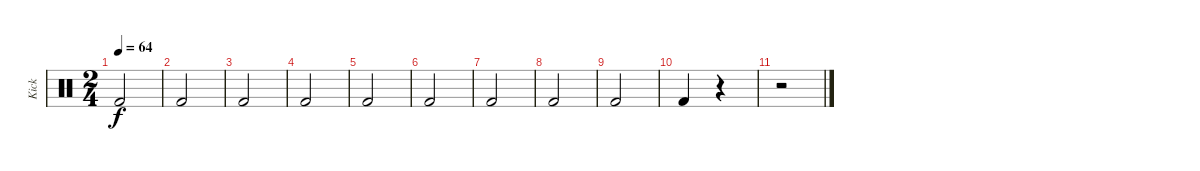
\track ("Kick" "Kick") {instrument percussion}
\staff {score}
\articulation defaults
\ts (2 4)
\tempo 64
\clef neutral
\ks c "Kick (hit) 2".2{dy f}
|
"Kick (hit) 2".2 |
"Kick (hit) 2".2 |
"Kick (hit) 2".2 |
"Kick (hit) 2".2 |
"Kick (hit) 2".2 |
"Kick (hit) 2".2 |
"Kick (hit) 2".2 |
"Kick (hit) 2".2 |
"Kick (hit) 2".4 r.4 |
r.2
